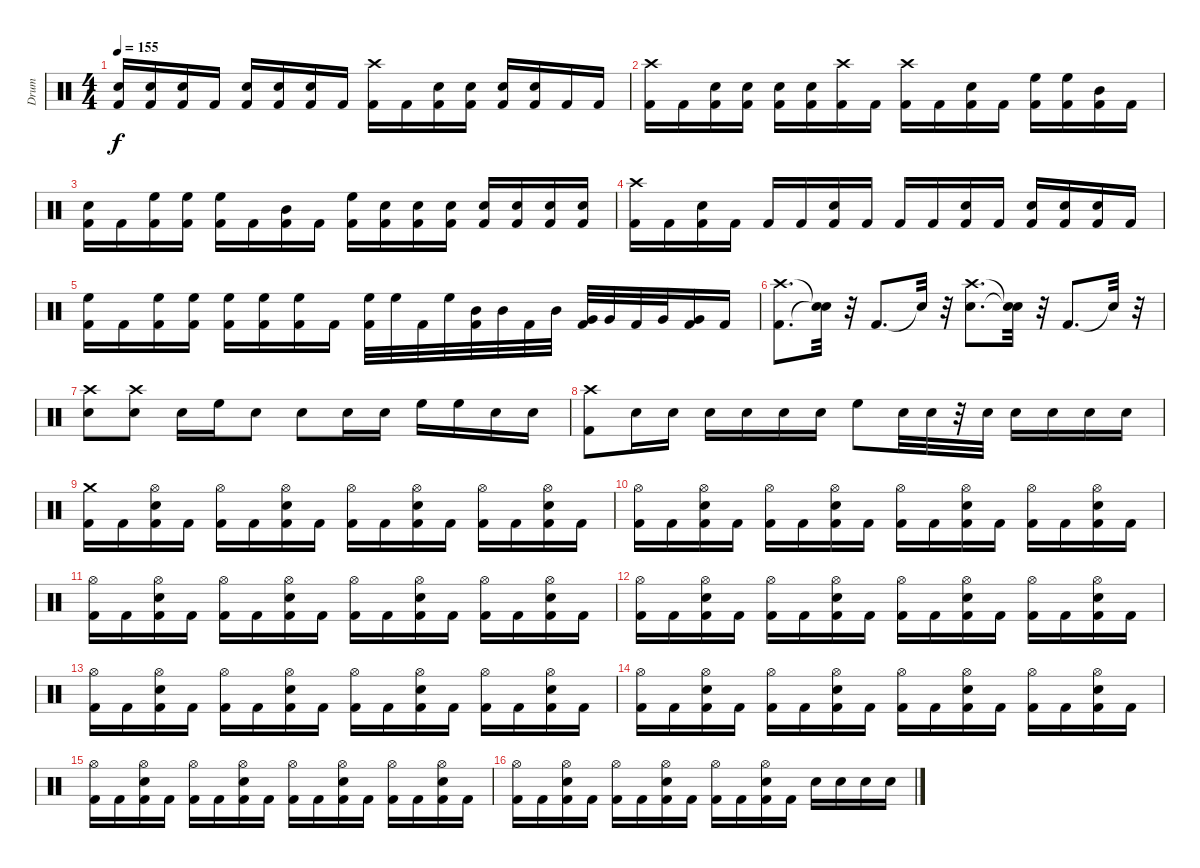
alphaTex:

\track ("Drum" "Drum") {instrument percussion}
\staff {score}
\articulation defaults
\ts (4 4)
\tempo 155
\clef neutral
\ks c
("Kick (hit) 2" "Snare (hit) 2").16{dy f} ("Kick (hit) 2" "Snare (hit) 2").16 ("Kick (hit) 2" "Snare (hit) 2").16 "Kick (hit) 2".16 ("Kick (hit) 2" "Snare (hit) 2").16 ("Kick (hit) 2" "Snare (hit) 2").16 ("Kick (hit) 2" "Snare (hit) 2").16 "Kick (hit) 2".16 ("Kick (hit) 2" "Crash high (hit)").16 "Kick (hit) 2".16 ("Kick (hit) 2" "Snare (hit) 2").16 ("Kick (hit) 2" "Snare (hit) 2").16 ("Kick (hit) 2" "Snare (hit) 2").16 ("Kick (hit) 2" "Snare (hit) 2").16 "Kick (hit) 2".16 "Kick (hit) 2".16 |
("Kick (hit) 2" "Crash high (hit)").16 "Kick (hit) 2".16 ("Kick (hit) 2" "Snare (hit) 2").16 ("Kick (hit) 2" "Snare (hit) 2").16 ("Kick (hit) 2" "Snare (hit) 2").16 ("Kick (hit) 2" "Snare (hit) 2").16 ("Kick (hit) 2" "Crash high (hit)").16 "Kick (hit) 2".16 ("Crash high (hit)" "Kick (hit) 2").16 "Kick (hit) 2".16 ("Snare (hit) 2" "Kick (hit) 2").16 "Kick (hit) 2".16 ("High Floor Tom (hit)" "Kick (hit) 2").16 ("High Floor Tom (hit)" "Kick (hit) 2").16 ("Mid Tom (hit)" "Kick (hit) 2").16 "Kick (hit) 2".16 |
("Kick (hit) 2" "Snare (hit) 2").16 "Kick (hit) 2".16 ("Kick (hit) 2" "High Floor Tom (hit)").16 ("Kick (hit) 2" "High Floor Tom (hit)").16 ("Kick (hit) 2" "High Floor Tom (hit)").16 "Kick (hit) 2".16 ("Kick (hit) 2" "Mid Tom (hit)").16 "Kick (hit) 2".16 ("Kick (hit) 2" "High Floor Tom (hit)").16 ("Kick (hit) 2" "Snare (hit) 2").16 ("Kick (hit) 2" "Snare (hit) 2").16 ("Kick (hit) 2" "Snare (hit) 2").16 ("Kick (hit) 2" "Snare (hit) 2").16 ("Kick (hit) 2" "Snare (hit) 2").16 ("Kick (hit) 2" "Snare (hit) 2").16 ("Kick (hit) 2" "Snare (hit) 2").16 |
("Kick (hit) 2" "Crash high (hit)").16 "Kick (hit) 2".16 ("Kick (hit) 2" "Snare (hit) 2").16 "Kick (hit) 2".16 "Kick (hit) 2".16 "Kick (hit) 2".16 ("Kick (hit) 2" "Snare (hit) 2").16 "Kick (hit) 2".16 "Kick (hit) 2".16 "Kick (hit) 2".16 ("Kick (hit) 2" "Snare (hit) 2").16 "Kick (hit) 2".16 ("Kick (hit) 2" "Snare (hit) 2").16 ("Kick (hit) 2" "Snare (hit) 2").16 ("Kick (hit) 2" "Snare (hit) 2").16 "Kick (hit) 2".16 |
("Kick (hit) 2" "High Floor Tom (hit)").16 "Kick (hit) 2".16 ("Kick (hit) 2" "High Floor Tom (hit)").16 ("Kick (hit) 2" "High Floor Tom (hit)").16 ("Kick (hit) 2" "High Floor Tom (hit)").16 ("Kick (hit) 2" "High Floor Tom (hit)").16 ("Kick (hit) 2" "High Floor Tom (hit)").16 "Kick (hit) 2".16 ("Kick (hit) 2" "High Floor Tom (hit)").32 "High Floor Tom (hit)".32 "Kick (hit) 2".32 "High Floor Tom (hit)".32 ("Kick (hit) 2" "Mid Tom (hit)").32 "Mid Tom (hit)".32 "Kick (hit) 2".32 "Mid Tom (hit)".32 ("Kick (hit) 2" "Very Low Tom (hit)").32 "Very Low Tom (hit)".32 "Kick (hit) 2".32 "Very Low Tom (hit)".32 ("Kick (hit) 2" "Very Low Tom (hit)").16 "Kick (hit) 2".16 |
("Kick (hit) 2" "Crash high (hit)").8{d} ("Snare (hit)"{t} "Snare (hit)"{t}).32 r.32 "Kick (hit) 2".8{d} "Snare (hit)"{t}.32 r.32 ("Snare (hit) 2" "Crash high (hit)").8{d} ("Snare (hit)"{t} "Snare (hit)"{t}).32 r.32 "Kick (hit) 2".8{d} "Snare (hit)"{t}.32 r.32 |
("Snare (hit) 2" "Crash high (hit)").8 ("Snare (hit) 2" "Crash high (hit)").8 "Snare (hit) 2".16 "High Floor Tom (hit)".16 "Snare (hit) 2".8 "Snare (hit) 2".8 "Snare (hit) 2".16 "Snare (hit) 2".16 "High Floor Tom (hit)".16 "High Floor Tom (hit)".16 "Snare (hit) 2".16 "Snare (hit) 2".16 |
("Kick (hit) 2" "Crash high (hit)").8 "Snare (hit) 2".16 "Snare (hit) 2".16 "Snare (hit) 2".16 "Snare (hit) 2".16 "Snare (hit) 2".16 "Snare (hit) 2".16 "High Floor Tom (hit)".8 "Snare (hit) 2".32 "Snare (hit) 2".32 r.32 "Snare (hit) 2".32 "Snare (hit) 2".16 "Snare (hit) 2".16 "Snare (hit) 2".16 "Snare (hit) 2".16 |
("Kick (hit) 2" "Crash medium (hit)").16 "Kick (hit) 2".16 ("Kick (hit) 2" "Snare (hit) 2" "Hi-Hat (open)").16 "Kick (hit) 2".16 ("Kick (hit) 2" "Hi-Hat (open)").16 "Kick (hit) 2".16 ("Kick (hit) 2" "Snare (hit) 2" "Hi-Hat (open)").16 "Kick (hit) 2".16 ("Kick (hit) 2" "Hi-Hat (open)").16 "Kick (hit) 2".16 ("Kick (hit) 2" "Snare (hit) 2" "Hi-Hat (open)").16 "Kick (hit) 2".16 ("Kick (hit) 2" "Hi-Hat (open)").16 "Kick (hit) 2".16 ("Kick (hit) 2" "Snare (hit) 2" "Hi-Hat (open)").16 "Kick (hit) 2".16 |
("Kick (hit) 2" "Hi-Hat (open)").16 "Kick (hit) 2".16 ("Kick (hit) 2" "Snare (hit) 2" "Hi-Hat (open)").16 "Kick (hit) 2".16 ("Kick (hit) 2" "Hi-Hat (open)").16 "Kick (hit) 2".16 ("Kick (hit) 2" "Snare (hit) 2" "Hi-Hat (open)").16 "Kick (hit) 2".16 ("Kick (hit) 2" "Hi-Hat (open)").16 "Kick (hit) 2".16 ("Kick (hit) 2" "Snare (hit) 2" "Hi-Hat (open)").16 "Kick (hit) 2".16 ("Kick (hit) 2" "Hi-Hat (open)").16 "Kick (hit) 2".16 ("Kick (hit) 2" "Snare (hit) 2" "Hi-Hat (open)").16 "Kick (hit) 2".16 |
("Kick (hit) 2" "Hi-Hat (open)").16 "Kick (hit) 2".16 ("Kick (hit) 2" "Snare (hit) 2" "Hi-Hat (open)").16 "Kick (hit) 2".16 ("Kick (hit) 2" "Hi-Hat (open)").16 "Kick (hit) 2".16 ("Kick (hit) 2" "Snare (hit) 2" "Hi-Hat (open)").16 "Kick (hit) 2".16 ("Kick (hit) 2" "Hi-Hat (open)").16 "Kick (hit) 2".16 ("Kick (hit) 2" "Snare (hit) 2" "Hi-Hat (open)").16 "Kick (hit) 2".16 ("Kick (hit) 2" "Hi-Hat (open)").16 "Kick (hit) 2".16 ("Kick (hit) 2" "Snare (hit) 2" "Hi-Hat (open)").16 "Kick (hit) 2".16 |
("Kick (hit) 2" "Hi-Hat (open)").16 "Kick (hit) 2".16 ("Kick (hit) 2" "Snare (hit) 2" "Hi-Hat (open)").16 "Kick (hit) 2".16 ("Kick (hit) 2" "Hi-Hat (open)").16 "Kick (hit) 2".16 ("Kick (hit) 2" "Snare (hit) 2" "Hi-Hat (open)").16 "Kick (hit) 2".16 ("Kick (hit) 2" "Hi-Hat (open)").16 "Kick (hit) 2".16 ("Kick (hit) 2" "Snare (hit) 2" "Hi-Hat (open)").16 "Kick (hit) 2".16 ("Kick (hit) 2" "Hi-Hat (open)").16 "Kick (hit) 2".16 ("Kick (hit) 2" "Snare (hit) 2" "Hi-Hat (open)").16 "Kick (hit) 2".16 |
("Kick (hit) 2" "Hi-Hat (open)").16 "Kick (hit) 2".16 ("Kick (hit) 2" "Snare (hit) 2" "Hi-Hat (open)").16 "Kick (hit) 2".16 ("Kick (hit) 2" "Hi-Hat (open)").16 "Kick (hit) 2".16 ("Kick (hit) 2" "Snare (hit) 2" "Hi-Hat (open)").16 "Kick (hit) 2".16 ("Kick (hit) 2" "Hi-Hat (open)").16 "Kick (hit) 2".16 ("Kick (hit) 2" "Snare (hit) 2" "Hi-Hat (open)").16 "Kick (hit) 2".16 ("Kick (hit) 2" "Hi-Hat (open)").16 "Kick (hit) 2".16 ("Kick (hit) 2" "Snare (hit) 2" "Hi-Hat (open)").16 "Kick (hit) 2".16 |
("Kick (hit) 2" "Hi-Hat (open)").16 "Kick (hit) 2".16 ("Kick (hit) 2" "Snare (hit) 2" "Hi-Hat (open)").16 "Kick (hit) 2".16 ("Kick (hit) 2" "Hi-Hat (open)").16 "Kick (hit) 2".16 ("Kick (hit) 2" "Snare (hit) 2" "Hi-Hat (open)").16 "Kick (hit) 2".16 ("Kick (hit) 2" "Hi-Hat (open)").16 "Kick (hit) 2".16 ("Kick (hit) 2" "Snare (hit) 2" "Hi-Hat (open)").16 "Kick (hit) 2".16 ("Kick (hit) 2" "Hi-Hat (open)").16 "Kick (hit) 2".16 ("Kick (hit) 2" "Snare (hit) 2" "Hi-Hat (open)").16 "Kick (hit) 2".16 |
("Kick (hit) 2" "Hi-Hat (open)").16 "Kick (hit) 2".16 ("Kick (hit) 2" "Snare (hit) 2" "Hi-Hat (open)").16 "Kick (hit) 2".16 ("Kick (hit) 2" "Hi-Hat (open)").16 "Kick (hit) 2".16 ("Kick (hit) 2" "Snare (hit) 2" "Hi-Hat (open)").16 "Kick (hit) 2".16 ("Kick (hit) 2" "Hi-Hat (open)").16 "Kick (hit) 2".16 ("Kick (hit) 2" "Snare (hit) 2" "Hi-Hat (open)").16 "Kick (hit) 2".16 ("Kick (hit) 2" "Hi-Hat (open)").16 "Kick (hit) 2".16 ("Kick (hit) 2" "Snare (hit) 2" "Hi-Hat (open)").16 "Kick (hit) 2".16 |
("Kick (hit) 2" "Hi-Hat (open)").16 "Kick (hit) 2".16 ("Kick (hit) 2" "Snare (hit) 2" "Hi-Hat (open)").16 "Kick (hit) 2".16 ("Kick (hit) 2" "Hi-Hat (open)").16 "Kick (hit) 2".16 ("Kick (hit) 2" "Snare (hit) 2" "Hi-Hat (open)").16 "Kick (hit) 2".16 ("Kick (hit) 2" "Hi-Hat (open)").16 "Kick (hit) 2".16 ("Kick (hit) 2" "Snare (hit) 2" "Hi-Hat (open)").16 "Kick (hit) 2".16 "Snare (hit) 2".16 "Snare (hit) 2".16 "Snare (hit) 2".16 "Snare (hit) 2".16
